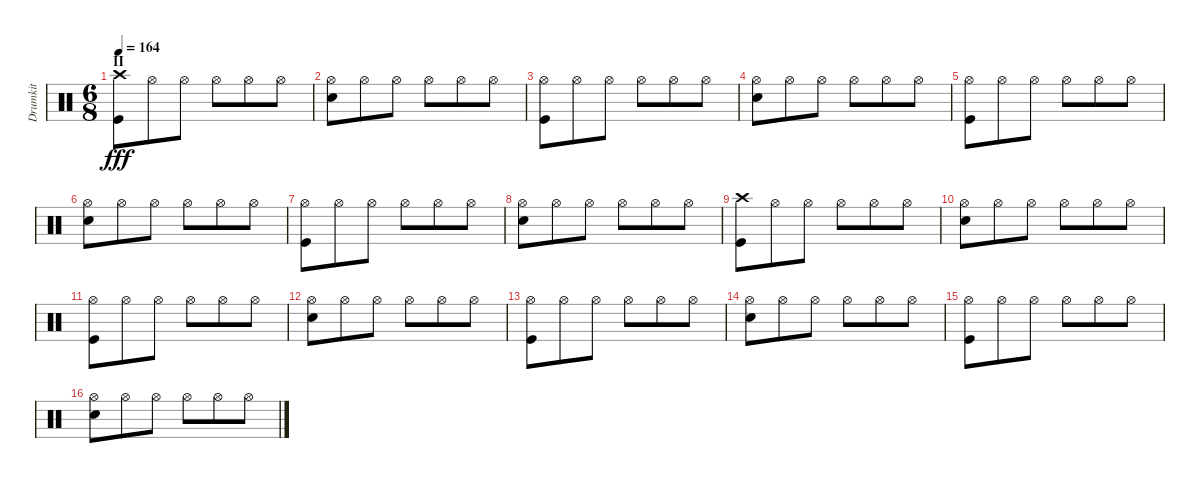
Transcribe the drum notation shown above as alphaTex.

\track ("Drumkit" "Drumkit") {instrument percussion}
\staff {score}
\articulation defaults
\ts (6 8)
\section ("" "II")
\tempo 164
\clef neutral
\ks c
("Kick (hit)" "Crash high (hit)").8{dy fff} "Hi-Hat (open)".8 "Hi-Hat (open)".8 "Hi-Hat (open)".8 "Hi-Hat (open)".8 "Hi-Hat (open)".8 |
("Hi-Hat (open)" "Snare (hit) 2").8 "Hi-Hat (open)".8 "Hi-Hat (open)".8 "Hi-Hat (open)".8 "Hi-Hat (open)".8 "Hi-Hat (open)".8 |
("Hi-Hat (open)" "Kick (hit)").8 "Hi-Hat (open)".8 "Hi-Hat (open)".8 "Hi-Hat (open)".8 "Hi-Hat (open)".8 "Hi-Hat (open)".8 |
("Hi-Hat (open)" "Snare (hit) 2").8 "Hi-Hat (open)".8 "Hi-Hat (open)".8 "Hi-Hat (open)".8 "Hi-Hat (open)".8 "Hi-Hat (open)".8 |
("Hi-Hat (open)" "Kick (hit)").8 "Hi-Hat (open)".8 "Hi-Hat (open)".8 "Hi-Hat (open)".8 "Hi-Hat (open)".8 "Hi-Hat (open)".8 |
("Hi-Hat (open)" "Snare (hit) 2").8 "Hi-Hat (open)".8 "Hi-Hat (open)".8 "Hi-Hat (open)".8 "Hi-Hat (open)".8 "Hi-Hat (open)".8 |
("Hi-Hat (open)" "Kick (hit)").8 "Hi-Hat (open)".8 "Hi-Hat (open)".8 "Hi-Hat (open)".8 "Hi-Hat (open)".8 "Hi-Hat (open)".8 |
("Hi-Hat (open)" "Snare (hit) 2").8 "Hi-Hat (open)".8 "Hi-Hat (open)".8 "Hi-Hat (open)".8 "Hi-Hat (open)".8 "Hi-Hat (open)".8 |
("Kick (hit)" "Crash high (hit)").8 "Hi-Hat (open)".8 "Hi-Hat (open)".8 "Hi-Hat (open)".8 "Hi-Hat (open)".8 "Hi-Hat (open)".8 |
("Hi-Hat (open)" "Snare (hit) 2").8 "Hi-Hat (open)".8 "Hi-Hat (open)".8 "Hi-Hat (open)".8 "Hi-Hat (open)".8 "Hi-Hat (open)".8 |
("Hi-Hat (open)" "Kick (hit)").8 "Hi-Hat (open)".8 "Hi-Hat (open)".8 "Hi-Hat (open)".8 "Hi-Hat (open)".8 "Hi-Hat (open)".8 |
("Hi-Hat (open)" "Snare (hit) 2").8 "Hi-Hat (open)".8 "Hi-Hat (open)".8 "Hi-Hat (open)".8 "Hi-Hat (open)".8 "Hi-Hat (open)".8 |
("Hi-Hat (open)" "Kick (hit)").8 "Hi-Hat (open)".8 "Hi-Hat (open)".8 "Hi-Hat (open)".8 "Hi-Hat (open)".8 "Hi-Hat (open)".8 |
("Hi-Hat (open)" "Snare (hit) 2").8 "Hi-Hat (open)".8 "Hi-Hat (open)".8 "Hi-Hat (open)".8 "Hi-Hat (open)".8 "Hi-Hat (open)".8 |
("Hi-Hat (open)" "Kick (hit)").8 "Hi-Hat (open)".8 "Hi-Hat (open)".8 "Hi-Hat (open)".8 "Hi-Hat (open)".8 "Hi-Hat (open)".8 |
("Hi-Hat (open)" "Snare (hit) 2").8 "Hi-Hat (open)".8 "Hi-Hat (open)".8 "Hi-Hat (open)".8 "Hi-Hat (open)".8 "Hi-Hat (open)".8
